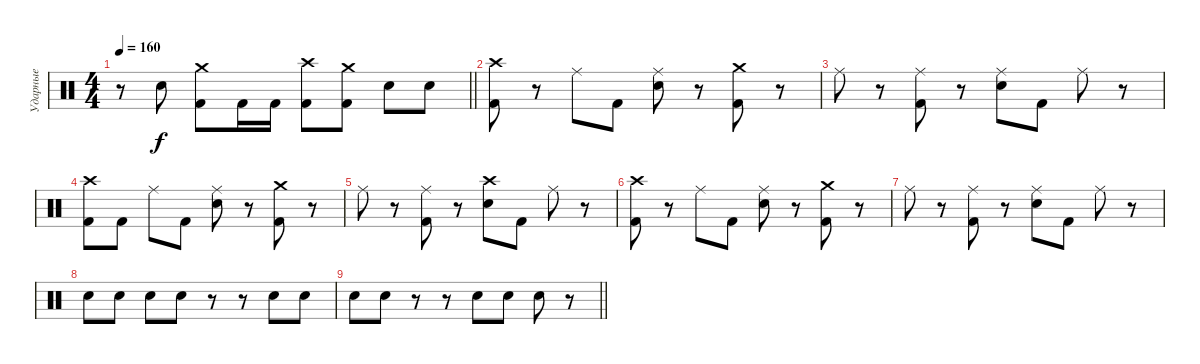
\track ("Ударные" "Ударные") {instrument percussion}
\staff {score}
\articulation defaults
\ts (4 4)
\tempo 160
\clef neutral
\barLineRight lightlight
\ks c
r.8{dy f} "Snare (hit) 2".8 ("Crash medium (hit)" "Kick (hit) 2").8 "Kick (hit) 2".16 "Kick (hit) 2".16 ("Crash high (hit)" "Kick (hit) 2").8 ("Crash medium (hit)" "Kick (hit) 2").8 "Snare (hit) 2".8 "Snare (hit) 2".8 |
("Crash high (hit)" "Kick (hit) 2").8 r.8 "Ride (middle)".8 "Kick (hit) 2".8 ("Ride (middle)" "Snare (hit) 2").8 r.8 ("Crash medium (hit)" "Kick (hit) 2").8 r.8 |
"Ride (middle)".8 r.8 ("Ride (middle)" "Kick (hit) 2").8 r.8 ("Ride (middle)" "Snare (hit) 2").8 "Kick (hit) 2".8 "Ride (middle)".8 r.8 |
("Crash high (hit)" "Kick (hit) 2").8 "Kick (hit) 2".8 "Ride (middle)".8 "Kick (hit) 2".8 ("Ride (middle)" "Snare (hit) 2").8 r.8 ("Crash medium (hit)" "Kick (hit) 2").8 r.8 |
"Ride (middle)".8 r.8 ("Ride (middle)" "Kick (hit) 2").8 r.8 ("Crash high (hit)" "Snare (hit) 2").8 "Kick (hit) 2".8 "Ride (middle)".8 r.8 |
("Crash high (hit)" "Kick (hit) 2").8 r.8 "Ride (middle)".8 "Kick (hit) 2".8 ("Ride (middle)" "Snare (hit) 2").8 r.8 ("Crash medium (hit)" "Kick (hit) 2").8 r.8 |
"Ride (middle)".8 r.8 ("Ride (middle)" "Kick (hit) 2").8 r.8 ("Ride (middle)" "Snare (hit) 2").8 "Kick (hit) 2".8 "Ride (middle)".8 r.8 |
"Snare (hit) 2".8 "Snare (hit) 2".8 "Snare (hit) 2".8 "Snare (hit) 2".8 r.8 r.8 "Snare (hit) 2".8 "Snare (hit) 2".8 |
\barLineRight lightlight "Snare (hit) 2".8 "Snare (hit) 2".8
r.8 r.8 "Snare (hit) 2".8 "Snare (hit) 2".8 "Snare (hit) 2".8 r.8
